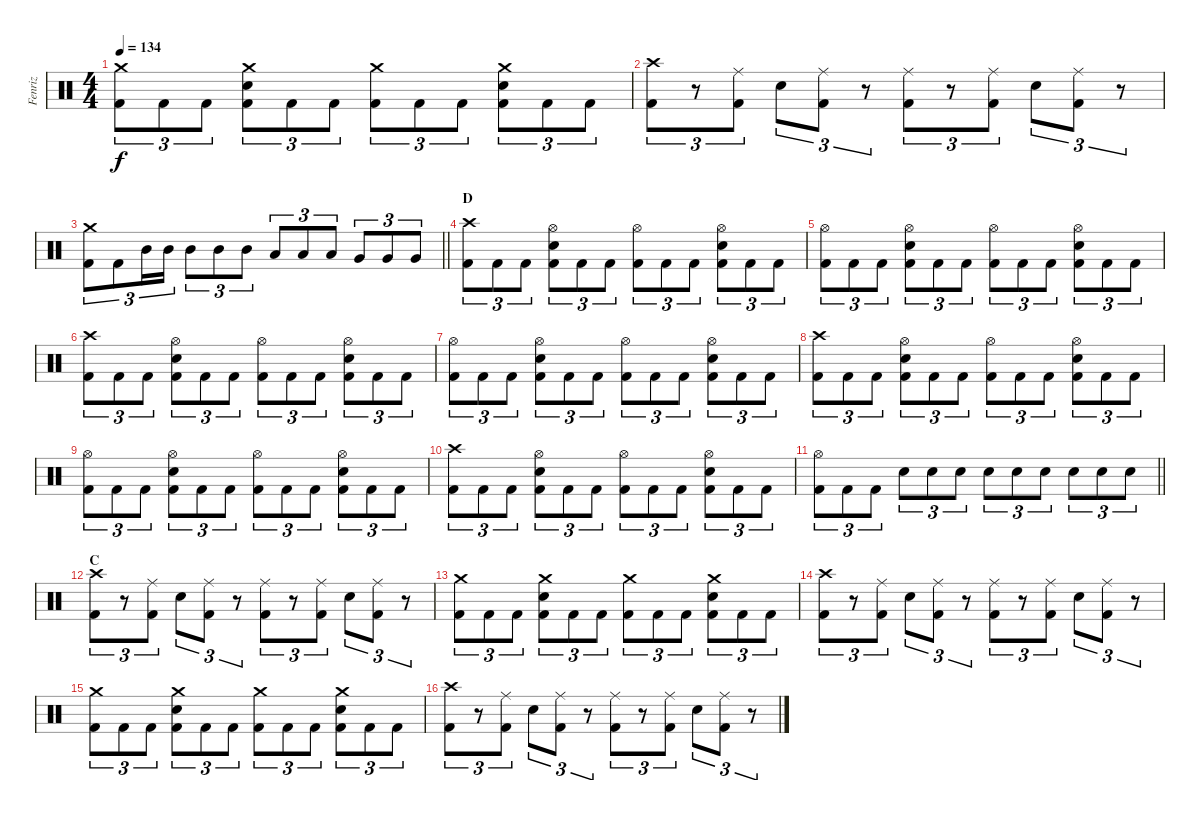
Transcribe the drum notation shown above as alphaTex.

\track ("Fenriz" "Fenriz") {instrument percussion}
\staff {score}
\articulation defaults
\ts (4 4)
\tempo 134
\clef neutral
\ks c
("Crash medium (hit)" "Kick (hit) 2").8{tu (3 2) dy f} "Kick (hit) 2".8{tu (3 2)} "Kick (hit) 2".8{tu (3 2)} ("Crash medium (hit)" "Snare (hit) 2" "Kick (hit) 2").8{tu (3 2)} "Kick (hit) 2".8{tu (3 2)} "Kick (hit) 2".8{tu (3 2)} ("Crash medium (hit)" "Kick (hit) 2").8{tu (3 2)} "Kick (hit) 2".8{tu (3 2)} "Kick (hit) 2".8{tu (3 2)} ("Crash medium (hit)" "Snare (hit) 2" "Kick (hit) 2").8{tu (3 2)} "Kick (hit) 2".8{tu (3 2)} "Kick (hit) 2".8{tu (3 2)} |
("Crash high (hit)" "Kick (hit) 2").8{tu (3 2)} r.8{tu (3 2)} ("Ride (middle)" "Kick (hit) 2").8{tu (3 2)} "Snare (hit) 2".8{tu (3 2)} ("Ride (middle)" "Kick (hit) 2").8{tu (3 2)} r.8{tu (3 2)} ("Ride (middle)" "Kick (hit) 2").8{tu (3 2)} r.8{tu (3 2)} ("Ride (middle)" "Kick (hit) 2").8{tu (3 2)} "Snare (hit) 2".8{tu (3 2)} ("Ride (middle)" "Kick (hit) 2").8{tu (3 2)} r.8{tu (3 2)} |
\barLineRight lightlight
("Crash medium (hit)" "Kick (hit) 2").8{tu (3 2)} "Kick (hit) 2".8{tu (3 2)} "Mid Tom (hit)".16{tu (3 2)} "Mid Tom (hit)".16{tu (3 2)} "Mid Tom (hit)".8{tu (3 2)} "Mid Tom (hit)".8{tu (3 2)} "Mid Tom (hit)".8{tu (3 2)} "Low Tom (hit)".8{tu (3 2)} "Low Tom (hit)".8{tu (3 2)} "Low Tom (hit)".8{tu (3 2)} "Very Low Tom (hit)".8{tu (3 2)} "Very Low Tom (hit)".8{tu (3 2)} "Very Low Tom (hit)".8{tu (3 2)} |
\section ("" "D")
("Crash high (hit)" "Kick (hit) 2").8{tu (3 2)} "Kick (hit) 2".8{tu (3 2)} "Kick (hit) 2".8{tu (3 2)} ("Hi-Hat (open)" "Snare (hit) 2" "Kick (hit) 2").8{tu (3 2)} "Kick (hit) 2".8{tu (3 2)} "Kick (hit) 2".8{tu (3 2)} ("Hi-Hat (open)" "Kick (hit) 2").8{tu (3 2)} "Kick (hit) 2".8{tu (3 2)} "Kick (hit) 2".8{tu (3 2)} ("Hi-Hat (open)" "Snare (hit) 2" "Kick (hit) 2").8{tu (3 2)} "Kick (hit) 2".8{tu (3 2)} "Kick (hit) 2".8{tu (3 2)} |
("Hi-Hat (open)" "Kick (hit) 2").8{tu (3 2)} "Kick (hit) 2".8{tu (3 2)} "Kick (hit) 2".8{tu (3 2)} ("Hi-Hat (open)" "Snare (hit) 2" "Kick (hit) 2").8{tu (3 2)} "Kick (hit) 2".8{tu (3 2)} "Kick (hit) 2".8{tu (3 2)} ("Hi-Hat (open)" "Kick (hit) 2").8{tu (3 2)} "Kick (hit) 2".8{tu (3 2)} "Kick (hit) 2".8{tu (3 2)} ("Hi-Hat (open)" "Snare (hit) 2" "Kick (hit) 2").8{tu (3 2)} "Kick (hit) 2".8{tu (3 2)} "Kick (hit) 2".8{tu (3 2)} |
("Crash high (hit)" "Kick (hit) 2").8{tu (3 2)} "Kick (hit) 2".8{tu (3 2)} "Kick (hit) 2".8{tu (3 2)} ("Hi-Hat (open)" "Snare (hit) 2" "Kick (hit) 2").8{tu (3 2)} "Kick (hit) 2".8{tu (3 2)} "Kick (hit) 2".8{tu (3 2)} ("Hi-Hat (open)" "Kick (hit) 2").8{tu (3 2)} "Kick (hit) 2".8{tu (3 2)} "Kick (hit) 2".8{tu (3 2)} ("Hi-Hat (open)" "Snare (hit) 2" "Kick (hit) 2").8{tu (3 2)} "Kick (hit) 2".8{tu (3 2)} "Kick (hit) 2".8{tu (3 2)} |
("Hi-Hat (open)" "Kick (hit) 2").8{tu (3 2)} "Kick (hit) 2".8{tu (3 2)} "Kick (hit) 2".8{tu (3 2)} ("Hi-Hat (open)" "Snare (hit) 2" "Kick (hit) 2").8{tu (3 2)} "Kick (hit) 2".8{tu (3 2)} "Kick (hit) 2".8{tu (3 2)} ("Hi-Hat (open)" "Kick (hit) 2").8{tu (3 2)} "Kick (hit) 2".8{tu (3 2)} "Kick (hit) 2".8{tu (3 2)} ("Hi-Hat (open)" "Snare (hit) 2" "Kick (hit) 2").8{tu (3 2)} "Kick (hit) 2".8{tu (3 2)} "Kick (hit) 2".8{tu (3 2)} |
("Crash high (hit)" "Kick (hit) 2").8{tu (3 2)} "Kick (hit) 2".8{tu (3 2)} "Kick (hit) 2".8{tu (3 2)} ("Hi-Hat (open)" "Snare (hit) 2" "Kick (hit) 2").8{tu (3 2)} "Kick (hit) 2".8{tu (3 2)} "Kick (hit) 2".8{tu (3 2)} ("Hi-Hat (open)" "Kick (hit) 2").8{tu (3 2)} "Kick (hit) 2".8{tu (3 2)} "Kick (hit) 2".8{tu (3 2)} ("Hi-Hat (open)" "Snare (hit) 2" "Kick (hit) 2").8{tu (3 2)} "Kick (hit) 2".8{tu (3 2)} "Kick (hit) 2".8{tu (3 2)} |
("Hi-Hat (open)" "Kick (hit) 2").8{tu (3 2)} "Kick (hit) 2".8{tu (3 2)} "Kick (hit) 2".8{tu (3 2)} ("Hi-Hat (open)" "Snare (hit) 2" "Kick (hit) 2").8{tu (3 2)} "Kick (hit) 2".8{tu (3 2)} "Kick (hit) 2".8{tu (3 2)} ("Hi-Hat (open)" "Kick (hit) 2").8{tu (3 2)} "Kick (hit) 2".8{tu (3 2)} "Kick (hit) 2".8{tu (3 2)} ("Hi-Hat (open)" "Snare (hit) 2" "Kick (hit) 2").8{tu (3 2)} "Kick (hit) 2".8{tu (3 2)} "Kick (hit) 2".8{tu (3 2)} |
("Crash high (hit)" "Kick (hit) 2").8{tu (3 2)} "Kick (hit) 2".8{tu (3 2)} "Kick (hit) 2".8{tu (3 2)} ("Hi-Hat (open)" "Snare (hit) 2" "Kick (hit) 2").8{tu (3 2)} "Kick (hit) 2".8{tu (3 2)} "Kick (hit) 2".8{tu (3 2)} ("Hi-Hat (open)" "Kick (hit) 2").8{tu (3 2)} "Kick (hit) 2".8{tu (3 2)} "Kick (hit) 2".8{tu (3 2)} ("Hi-Hat (open)" "Snare (hit) 2" "Kick (hit) 2").8{tu (3 2)} "Kick (hit) 2".8{tu (3 2)} "Kick (hit) 2".8{tu (3 2)} |
\barLineRight lightlight
("Hi-Hat (open)" "Kick (hit) 2").8{tu (3 2)} "Kick (hit) 2".8{tu (3 2)} "Kick (hit) 2".8{tu (3 2)} "Snare (hit) 2".8{tu (3 2)} "Snare (hit) 2".8{tu (3 2)} "Snare (hit) 2".8{tu (3 2)} "Snare (hit) 2".8{tu (3 2)} "Snare (hit) 2".8{tu (3 2)} "Snare (hit) 2".8{tu (3 2)} "Snare (hit) 2".8{tu (3 2)} "Snare (hit) 2".8{tu (3 2)} "Snare (hit) 2".8{tu (3 2)} |
\section ("" "C")
("Crash high (hit)" "Kick (hit) 2").8{tu (3 2)} r.8{tu (3 2)} ("Ride (middle)" "Kick (hit) 2").8{tu (3 2)} "Snare (hit) 2".8{tu (3 2)} ("Ride (middle)" "Kick (hit) 2").8{tu (3 2)} r.8{tu (3 2)} ("Ride (middle)" "Kick (hit) 2").8{tu (3 2)} r.8{tu (3 2)} ("Ride (middle)" "Kick (hit) 2").8{tu (3 2)} "Snare (hit) 2".8{tu (3 2)} ("Ride (middle)" "Kick (hit) 2").8{tu (3 2)} r.8{tu (3 2)} |
("Crash medium (hit)" "Kick (hit) 2").8{tu (3 2)} "Kick (hit) 2".8{tu (3 2)} "Kick (hit) 2".8{tu (3 2)} ("Crash medium (hit)" "Snare (hit) 2" "Kick (hit) 2").8{tu (3 2)} "Kick (hit) 2".8{tu (3 2)} "Kick (hit) 2".8{tu (3 2)} ("Crash medium (hit)" "Kick (hit) 2").8{tu (3 2)} "Kick (hit) 2".8{tu (3 2)} "Kick (hit) 2".8{tu (3 2)} ("Crash medium (hit)" "Snare (hit) 2" "Kick (hit) 2").8{tu (3 2)} "Kick (hit) 2".8{tu (3 2)} "Kick (hit) 2".8{tu (3 2)} |
("Crash high (hit)" "Kick (hit) 2").8{tu (3 2)} r.8{tu (3 2)} ("Ride (middle)" "Kick (hit) 2").8{tu (3 2)} "Snare (hit) 2".8{tu (3 2)} ("Ride (middle)" "Kick (hit) 2").8{tu (3 2)} r.8{tu (3 2)} ("Ride (middle)" "Kick (hit) 2").8{tu (3 2)} r.8{tu (3 2)} ("Ride (middle)" "Kick (hit) 2").8{tu (3 2)} "Snare (hit) 2".8{tu (3 2)} ("Ride (middle)" "Kick (hit) 2").8{tu (3 2)} r.8{tu (3 2)} |
("Crash medium (hit)" "Kick (hit) 2").8{tu (3 2)} "Kick (hit) 2".8{tu (3 2)} "Kick (hit) 2".8{tu (3 2)} ("Crash medium (hit)" "Snare (hit) 2" "Kick (hit) 2").8{tu (3 2)} "Kick (hit) 2".8{tu (3 2)} "Kick (hit) 2".8{tu (3 2)} ("Crash medium (hit)" "Kick (hit) 2").8{tu (3 2)} "Kick (hit) 2".8{tu (3 2)} "Kick (hit) 2".8{tu (3 2)} ("Crash medium (hit)" "Snare (hit) 2" "Kick (hit) 2").8{tu (3 2)} "Kick (hit) 2".8{tu (3 2)} "Kick (hit) 2".8{tu (3 2)} |
("Crash high (hit)" "Kick (hit) 2").8{tu (3 2)} r.8{tu (3 2)} ("Ride (middle)" "Kick (hit) 2").8{tu (3 2)} "Snare (hit) 2".8{tu (3 2)} ("Ride (middle)" "Kick (hit) 2").8{tu (3 2)} r.8{tu (3 2)} ("Ride (middle)" "Kick (hit) 2").8{tu (3 2)} r.8{tu (3 2)} ("Ride (middle)" "Kick (hit) 2").8{tu (3 2)} "Snare (hit) 2".8{tu (3 2)} ("Ride (middle)" "Kick (hit) 2").8{tu (3 2)} r.8{tu (3 2)}
